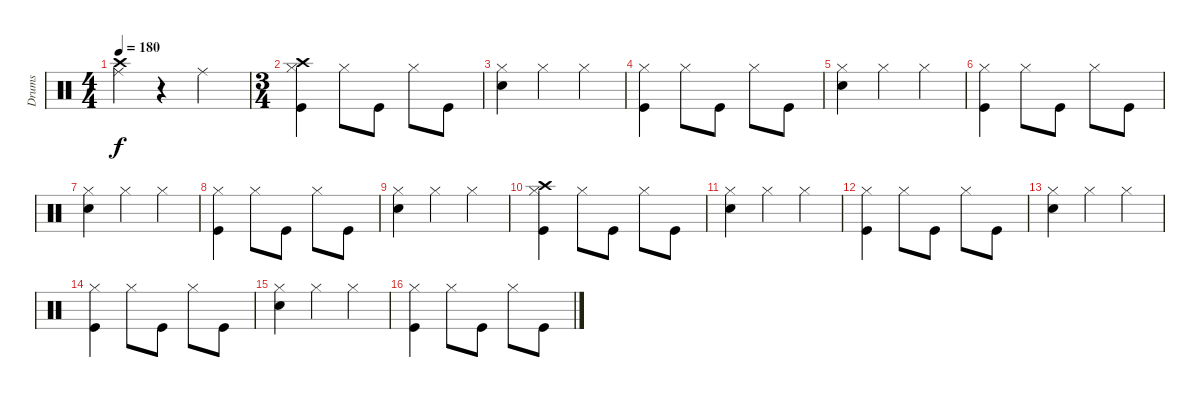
\track ("Drums" "Drums") {instrument percussion}
\staff {score}
\articulation defaults
\ts (4 4)
\tempo 180
\clef neutral
\ks c
("Crash high (hit)" "Ride (middle)").4{dy f} r.4 "Ride (middle)".2 |
\ts (3 4)
("Crash high (hit)" "Hi-Hat (closed)" "Kick (hit)").4 "Hi-Hat (closed)".8 "Kick (hit)".8 "Hi-Hat (closed)".8 "Kick (hit)".8 |
("Hi-Hat (closed)" "Electric Snare (hit)").4 "Hi-Hat (closed)".4 "Hi-Hat (closed)".4 |
("Hi-Hat (closed)" "Kick (hit)").4 "Hi-Hat (closed)".8 "Kick (hit)".8 "Hi-Hat (closed)".8 "Kick (hit)".8 |
("Hi-Hat (closed)" "Electric Snare (hit)").4 "Hi-Hat (closed)".4 "Hi-Hat (closed)".4 |
("Hi-Hat (closed)" "Kick (hit)").4 "Hi-Hat (closed)".8 "Kick (hit)".8 "Hi-Hat (closed)".8 "Kick (hit)".8 |
("Hi-Hat (closed)" "Electric Snare (hit)").4 "Hi-Hat (closed)".4 "Hi-Hat (closed)".4 |
("Hi-Hat (closed)" "Kick (hit)").4 "Hi-Hat (closed)".8 "Kick (hit)".8 "Hi-Hat (closed)".8 "Kick (hit)".8 |
("Hi-Hat (closed)" "Electric Snare (hit)").4 "Hi-Hat (closed)".4 "Hi-Hat (closed)".4 |
("Crash high (hit)" "Hi-Hat (closed)" "Kick (hit)").4 "Hi-Hat (closed)".8 "Kick (hit)".8 "Hi-Hat (closed)".8 "Kick (hit)".8 |
("Hi-Hat (closed)" "Electric Snare (hit)").4 "Hi-Hat (closed)".4 "Hi-Hat (closed)".4 |
("Hi-Hat (closed)" "Kick (hit)").4 "Hi-Hat (closed)".8 "Kick (hit)".8 "Hi-Hat (closed)".8 "Kick (hit)".8 |
("Hi-Hat (closed)" "Electric Snare (hit)").4 "Hi-Hat (closed)".4 "Hi-Hat (closed)".4 |
("Hi-Hat (closed)" "Kick (hit)").4 "Hi-Hat (closed)".8 "Kick (hit)".8 "Hi-Hat (closed)".8 "Kick (hit)".8 |
("Hi-Hat (closed)" "Electric Snare (hit)").4 "Hi-Hat (closed)".4 "Hi-Hat (closed)".4 |
("Hi-Hat (closed)" "Kick (hit)").4 "Hi-Hat (closed)".8 "Kick (hit)".8 "Hi-Hat (closed)".8 "Kick (hit)".8
